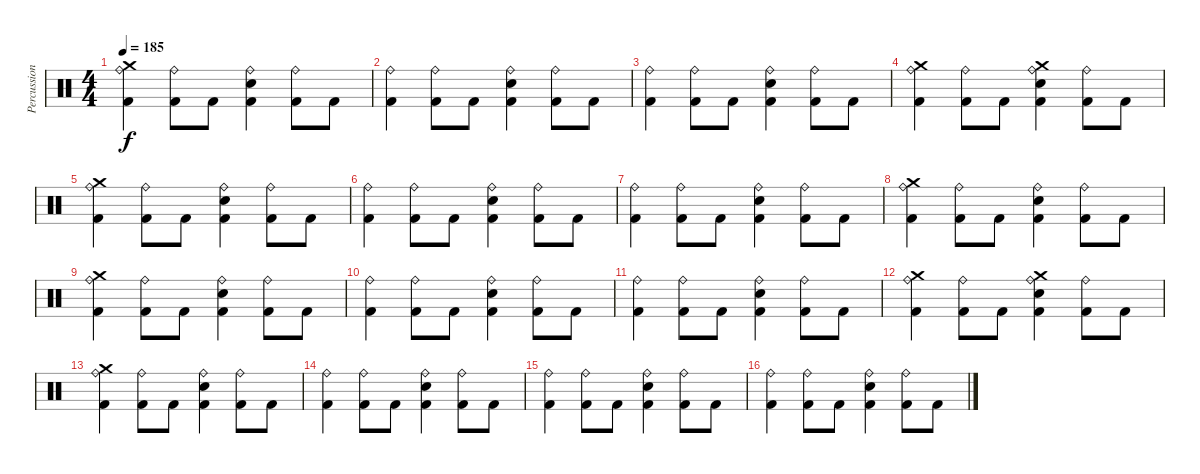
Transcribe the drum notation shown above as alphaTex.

\track ("Percussion" "Percussion") {instrument percussion}
\staff {score}
\articulation defaults
\ts (4 4)
\tempo 185
\clef neutral
\ks c
("Crash medium (hit)" "Ride (bell)" "Kick (hit) 2").4{dy f} ("Ride (bell)" "Kick (hit) 2").8 "Kick (hit) 2".8 ("Ride (bell)" "Electric Snare (hit)" "Kick (hit) 2").4 ("Ride (bell)" "Kick (hit) 2").8 "Kick (hit) 2".8 |
("Ride (bell)" "Kick (hit) 2").4 ("Ride (bell)" "Kick (hit) 2").8 "Kick (hit) 2".8 ("Ride (bell)" "Electric Snare (hit)" "Kick (hit) 2").4 ("Ride (bell)" "Kick (hit) 2").8 "Kick (hit) 2".8 |
("Ride (bell)" "Kick (hit) 2").4 ("Ride (bell)" "Kick (hit) 2").8 "Kick (hit) 2".8 ("Ride (bell)" "Electric Snare (hit)" "Kick (hit) 2").4 ("Ride (bell)" "Kick (hit) 2").8 "Kick (hit) 2".8 |
("Crash medium (hit)" "Ride (bell)" "Kick (hit) 2").4 ("Ride (bell)" "Kick (hit) 2").8 "Kick (hit) 2".8 ("Crash medium (hit)" "Ride (bell)" "Electric Snare (hit)" "Kick (hit) 2").4 ("Ride (bell)" "Kick (hit) 2").8 "Kick (hit) 2".8 |
("Crash medium (hit)" "Ride (bell)" "Kick (hit) 2").4 ("Ride (bell)" "Kick (hit) 2").8 "Kick (hit) 2".8 ("Ride (bell)" "Electric Snare (hit)" "Kick (hit) 2").4 ("Ride (bell)" "Kick (hit) 2").8 "Kick (hit) 2".8 |
("Ride (bell)" "Kick (hit) 2").4 ("Ride (bell)" "Kick (hit) 2").8 "Kick (hit) 2".8 ("Ride (bell)" "Electric Snare (hit)" "Kick (hit) 2").4 ("Ride (bell)" "Kick (hit) 2").8 "Kick (hit) 2".8 |
("Ride (bell)" "Kick (hit) 2").4 ("Ride (bell)" "Kick (hit) 2").8 "Kick (hit) 2".8 ("Ride (bell)" "Electric Snare (hit)" "Kick (hit) 2").4 ("Ride (bell)" "Kick (hit) 2").8 "Kick (hit) 2".8 |
("Crash medium (hit)" "Ride (bell)" "Kick (hit) 2").4 ("Ride (bell)" "Kick (hit) 2").8 "Kick (hit) 2".8 ("Ride (bell)" "Electric Snare (hit)" "Kick (hit) 2").4 ("Ride (bell)" "Kick (hit) 2").8 "Kick (hit) 2".8 |
("Crash medium (hit)" "Ride (bell)" "Kick (hit) 2").4 ("Ride (bell)" "Kick (hit) 2").8 "Kick (hit) 2".8 ("Ride (bell)" "Electric Snare (hit)" "Kick (hit) 2").4 ("Ride (bell)" "Kick (hit) 2").8 "Kick (hit) 2".8 |
("Ride (bell)" "Kick (hit) 2").4 ("Ride (bell)" "Kick (hit) 2").8 "Kick (hit) 2".8 ("Ride (bell)" "Electric Snare (hit)" "Kick (hit) 2").4 ("Ride (bell)" "Kick (hit) 2").8 "Kick (hit) 2".8 |
("Ride (bell)" "Kick (hit) 2").4 ("Ride (bell)" "Kick (hit) 2").8 "Kick (hit) 2".8 ("Ride (bell)" "Electric Snare (hit)" "Kick (hit) 2").4 ("Ride (bell)" "Kick (hit) 2").8 "Kick (hit) 2".8 |
("Crash medium (hit)" "Ride (bell)" "Kick (hit) 2").4 ("Ride (bell)" "Kick (hit) 2").8 "Kick (hit) 2".8 ("Crash medium (hit)" "Ride (bell)" "Electric Snare (hit)" "Kick (hit) 2").4 ("Ride (bell)" "Kick (hit) 2").8 "Kick (hit) 2".8 |
("Crash medium (hit)" "Ride (bell)" "Kick (hit) 2").4 ("Ride (bell)" "Kick (hit) 2").8 "Kick (hit) 2".8 ("Ride (bell)" "Electric Snare (hit)" "Kick (hit) 2").4 ("Ride (bell)" "Kick (hit) 2").8 "Kick (hit) 2".8 |
("Ride (bell)" "Kick (hit) 2").4 ("Ride (bell)" "Kick (hit) 2").8 "Kick (hit) 2".8 ("Ride (bell)" "Electric Snare (hit)" "Kick (hit) 2").4 ("Ride (bell)" "Kick (hit) 2").8 "Kick (hit) 2".8 |
("Ride (bell)" "Kick (hit) 2").4 ("Ride (bell)" "Kick (hit) 2").8 "Kick (hit) 2".8 ("Ride (bell)" "Electric Snare (hit)" "Kick (hit) 2").4 ("Ride (bell)" "Kick (hit) 2").8 "Kick (hit) 2".8 |
("Ride (bell)" "Kick (hit) 2").4 ("Ride (bell)" "Kick (hit) 2").8 "Kick (hit) 2".8 ("Ride (bell)" "Electric Snare (hit)" "Kick (hit) 2").4 ("Ride (bell)" "Kick (hit) 2").8 "Kick (hit) 2".8
